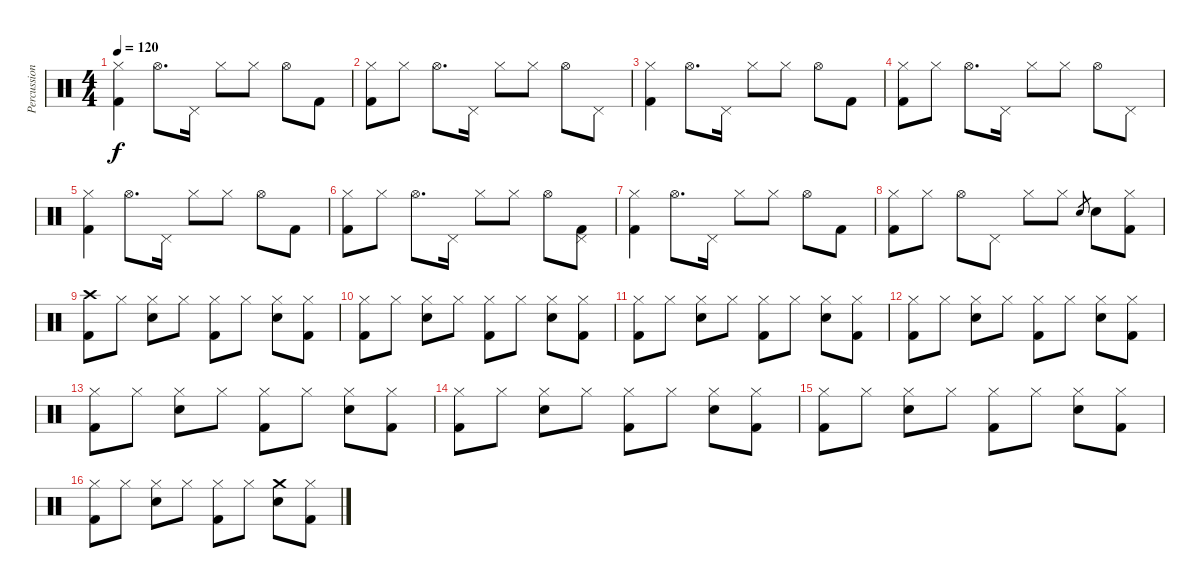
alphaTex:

\track ("Percussions" "Percussion") {instrument percussion}
\staff {score}
\articulation defaults
\ts (4 4)
\tempo 120
\clef neutral
\ks c
("Hi-Hat (closed)" "Kick (hit) 2").4{dy f} "Hi-Hat (open)".8{d} "Pedal Hi-Hat (hit)".16 "Hi-Hat (closed)".8 "Hi-Hat (closed)".8 "Hi-Hat (open)".8 "Kick (hit) 2".8 |
("Hi-Hat (closed)" "Kick (hit) 2").8 "Hi-Hat (closed)".8 "Hi-Hat (open)".8{d} "Pedal Hi-Hat (hit)".16 "Hi-Hat (closed)".8 "Hi-Hat (closed)".8 "Hi-Hat (open)".8 "Pedal Hi-Hat (hit)".8 |
("Hi-Hat (closed)" "Kick (hit) 2").4 "Hi-Hat (open)".8{d} "Pedal Hi-Hat (hit)".16 "Hi-Hat (closed)".8 "Hi-Hat (closed)".8 "Hi-Hat (open)".8 "Kick (hit) 2".8 |
("Hi-Hat (closed)" "Kick (hit) 2").8 "Hi-Hat (closed)".8 "Hi-Hat (open)".8{d} "Pedal Hi-Hat (hit)".16 "Hi-Hat (closed)".8 "Hi-Hat (closed)".8 "Hi-Hat (open)".8 "Pedal Hi-Hat (hit)".8 |
("Hi-Hat (closed)" "Kick (hit) 2").4 "Hi-Hat (open)".8{d} "Pedal Hi-Hat (hit)".16 "Hi-Hat (closed)".8 "Hi-Hat (closed)".8 "Hi-Hat (open)".8 "Kick (hit) 2".8 |
("Hi-Hat (closed)" "Kick (hit) 2").8 "Hi-Hat (closed)".8 "Hi-Hat (open)".8{d} "Pedal Hi-Hat (hit)".16 "Hi-Hat (closed)".8 "Hi-Hat (closed)".8 "Hi-Hat (open)".8 ("Pedal Hi-Hat (hit)" "Kick (hit) 2").8 |
("Hi-Hat (closed)" "Kick (hit) 2").4 "Hi-Hat (open)".8{d} "Pedal Hi-Hat (hit)".16 "Hi-Hat (closed)".8 "Hi-Hat (closed)".8 "Hi-Hat (open)".8 "Kick (hit) 2".8 |
("Hi-Hat (closed)" "Kick (hit) 2").8 "Hi-Hat (closed)".8 "Hi-Hat (open)".8 "Pedal Hi-Hat (hit)".8 "Hi-Hat (closed)".8 "Hi-Hat (closed)".8 "Electric Snare (hit)".8{gr} "Electric Snare (hit)".8 ("Hi-Hat (closed)" "Kick (hit) 2").8 |
("Crash high (hit)" "Kick (hit) 2").8 "Hi-Hat (closed)".8 ("Hi-Hat (closed)" "Electric Snare (hit)").8 "Hi-Hat (closed)".8 ("Hi-Hat (closed)" "Kick (hit) 2").8 "Hi-Hat (closed)".8 ("Hi-Hat (closed)" "Electric Snare (hit)").8 ("Hi-Hat (closed)" "Kick (hit) 2").8 |
("Hi-Hat (closed)" "Kick (hit) 2").8 "Hi-Hat (closed)".8 ("Hi-Hat (closed)" "Electric Snare (hit)").8 "Hi-Hat (closed)".8 ("Hi-Hat (closed)" "Kick (hit) 2").8 "Hi-Hat (closed)".8 ("Hi-Hat (closed)" "Electric Snare (hit)").8 ("Hi-Hat (closed)" "Kick (hit) 2").8 |
("Hi-Hat (closed)" "Kick (hit) 2").8 "Hi-Hat (closed)".8 ("Hi-Hat (closed)" "Electric Snare (hit)").8 "Hi-Hat (closed)".8 ("Hi-Hat (closed)" "Kick (hit) 2").8 "Hi-Hat (closed)".8 ("Hi-Hat (closed)" "Electric Snare (hit)").8 ("Hi-Hat (closed)" "Kick (hit) 2").8 |
("Hi-Hat (closed)" "Kick (hit) 2").8 "Hi-Hat (closed)".8 ("Hi-Hat (closed)" "Electric Snare (hit)").8 "Hi-Hat (closed)".8 ("Hi-Hat (closed)" "Kick (hit) 2").8 "Hi-Hat (closed)".8 ("Hi-Hat (closed)" "Electric Snare (hit)").8 ("Hi-Hat (closed)" "Kick (hit) 2").8 |
("Hi-Hat (closed)" "Kick (hit) 2").8 "Hi-Hat (closed)".8 ("Hi-Hat (closed)" "Electric Snare (hit)").8 "Hi-Hat (closed)".8 ("Hi-Hat (closed)" "Kick (hit) 2").8 "Hi-Hat (closed)".8 ("Hi-Hat (closed)" "Electric Snare (hit)").8 ("Hi-Hat (closed)" "Kick (hit) 2").8 |
("Hi-Hat (closed)" "Kick (hit) 2").8 "Hi-Hat (closed)".8 ("Hi-Hat (closed)" "Electric Snare (hit)").8 "Hi-Hat (closed)".8 ("Hi-Hat (closed)" "Kick (hit) 2").8 "Hi-Hat (closed)".8 ("Hi-Hat (closed)" "Electric Snare (hit)").8 ("Hi-Hat (closed)" "Kick (hit) 2").8 |
("Hi-Hat (closed)" "Kick (hit) 2").8 "Hi-Hat (closed)".8 ("Hi-Hat (closed)" "Electric Snare (hit)").8 "Hi-Hat (closed)".8 ("Hi-Hat (closed)" "Kick (hit) 2").8 "Hi-Hat (closed)".8 ("Hi-Hat (closed)" "Electric Snare (hit)").8 ("Hi-Hat (closed)" "Kick (hit) 2").8 |
("Hi-Hat (closed)" "Kick (hit) 2").8 "Hi-Hat (closed)".8 ("Hi-Hat (closed)" "Electric Snare (hit)").8 "Hi-Hat (closed)".8 ("Hi-Hat (closed)" "Kick (hit) 2").8 "Hi-Hat (closed)".8 ("Crash medium (hit)" "Electric Snare (hit)").8 ("Hi-Hat (closed)" "Kick (hit) 2").8
